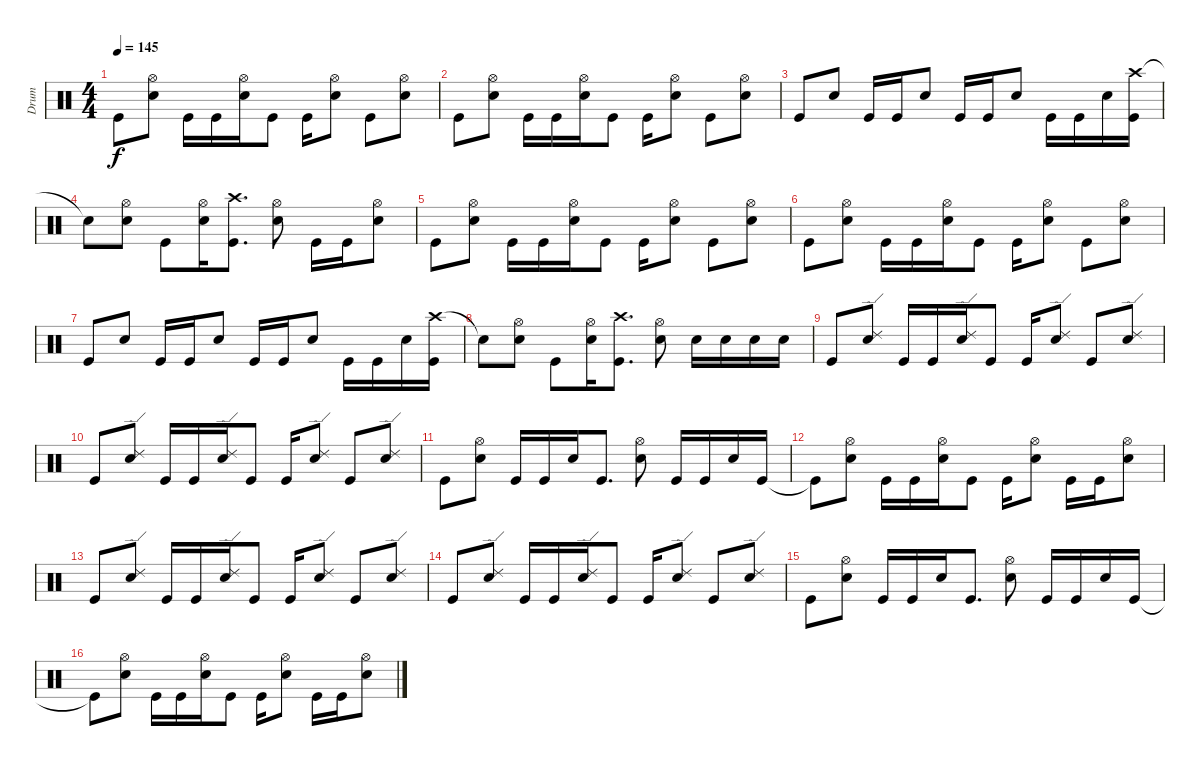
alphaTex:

\track ("Drum" "Drum") {instrument percussion}
\staff {score}
\articulation defaults
\ts (4 4)
\tempo 145
\clef neutral
\ks c "Kick (hit)".8{dy f}
("Hi-Hat (open)" "Snare (hit) 2").8 "Kick (hit)".16 "Kick (hit)".16 ("Hi-Hat (open)" "Snare (hit) 2").16 "Kick (hit)".8 "Kick (hit)".16 ("Hi-Hat (open)" "Snare (hit) 2").8 "Kick (hit)".8 ("Hi-Hat (open)" "Snare (hit) 2").8 |
"Kick (hit)".8 ("Hi-Hat (open)" "Snare (hit) 2").8 "Kick (hit)".16 "Kick (hit)".16 ("Hi-Hat (open)" "Snare (hit) 2").16 "Kick (hit)".8 "Kick (hit)".16 ("Hi-Hat (open)" "Snare (hit) 2").8 "Kick (hit)".8 ("Hi-Hat (open)" "Snare (hit) 2").8 |
"Kick (hit)".8 "Snare (hit) 2".8 "Kick (hit)".16 "Kick (hit)".16 "Snare (hit) 2".8 "Kick (hit)".16 "Kick (hit)".16 "Snare (hit) 2".8 "Kick (hit)".16 "Kick (hit)".16 "Snare (hit) 2".16 ("Crash high (hit)" "Kick (hit)").16 |
"Snare (hit)"{t}.8 ("Hi-Hat (open)" "Snare (hit) 2").8 "Kick (hit)".8 ("Hi-Hat (open)" "Snare (hit) 2").16 ("Crash high (hit)" "Kick (hit)").8{d} ("Hi-Hat (open)" "Snare (hit) 2").8 "Kick (hit)".16 "Kick (hit)".16 ("Hi-Hat (open)" "Snare (hit) 2").8 |
"Kick (hit)".8 ("Hi-Hat (open)" "Snare (hit) 2").8 "Kick (hit)".16 "Kick (hit)".16 ("Hi-Hat (open)" "Snare (hit) 2").16 "Kick (hit)".8 "Kick (hit)".16 ("Hi-Hat (open)" "Snare (hit) 2").8 "Kick (hit)".8 ("Hi-Hat (open)" "Snare (hit) 2").8 |
"Kick (hit)".8 ("Hi-Hat (open)" "Snare (hit) 2").8 "Kick (hit)".16 "Kick (hit)".16 ("Hi-Hat (open)" "Snare (hit) 2").16 "Kick (hit)".8 "Kick (hit)".16 ("Hi-Hat (open)" "Snare (hit) 2").8 "Kick (hit)".8 ("Hi-Hat (open)" "Snare (hit) 2").8 |
"Kick (hit)".8 "Snare (hit) 2".8 "Kick (hit)".16 "Kick (hit)".16 "Snare (hit) 2".8 "Kick (hit)".16 "Kick (hit)".16 "Snare (hit) 2".8 "Kick (hit)".16 "Kick (hit)".16 "Snare (hit) 2".16 ("Crash high (hit)" "Kick (hit)").16 |
"Snare (hit)"{t}.8 ("Hi-Hat (open)" "Snare (hit) 2").8 "Kick (hit)".8 ("Hi-Hat (open)" "Snare (hit) 2").16 ("Crash high (hit)" "Kick (hit)").8{d} ("Hi-Hat (open)" "Snare (hit) 2").8 "Snare (hit) 2".16 "Snare (hit) 2".16 "Snare (hit) 2".16 "Snare (hit) 2".16 |
"Kick (hit)".8 ("Ride (edge) 2" "Snare (hit) 2").8 "Kick (hit)".16 "Kick (hit)".16 ("Ride (edge) 2" "Snare (hit) 2").16 "Kick (hit)".8 "Kick (hit)".16 ("Ride (edge) 2" "Snare (hit) 2").8 "Kick (hit)".8 ("Ride (edge) 2" "Snare (hit) 2").8 |
"Kick (hit)".8 ("Ride (edge) 2" "Snare (hit) 2").8 "Kick (hit)".16 "Kick (hit)".16 ("Ride (edge) 2" "Snare (hit) 2").16 "Kick (hit)".8 "Kick (hit)".16 ("Ride (edge) 2" "Snare (hit) 2").8 "Kick (hit)".8 ("Ride (edge) 2" "Snare (hit) 2").8 |
"Kick (hit)".8 ("Hi-Hat (open)" "Snare (hit) 2").8 "Kick (hit)".16 "Kick (hit)".16 "Snare (hit) 2".16 "Kick (hit)".8{d} ("Hi-Hat (open)" "Snare (hit) 2").8 "Kick (hit)".16 "Kick (hit)".16 "Snare (hit) 2".16 "Kick (hit)".16 |
"Kick (hit)"{t}.8 ("Hi-Hat (open)" "Snare (hit) 2").8 "Kick (hit)".16 "Kick (hit)".16 ("Hi-Hat (open)" "Snare (hit) 2").16 "Kick (hit)".8 "Kick (hit)".16 ("Hi-Hat (open)" "Snare (hit) 2").8 "Kick (hit)".16 "Kick (hit)".16 ("Hi-Hat (open)" "Snare (hit) 2").8 |
"Kick (hit)".8 ("Ride (edge) 2" "Snare (hit) 2").8 "Kick (hit)".16 "Kick (hit)".16 ("Ride (edge) 2" "Snare (hit) 2").16 "Kick (hit)".8 "Kick (hit)".16 ("Ride (edge) 2" "Snare (hit) 2").8 "Kick (hit)".8 ("Ride (edge) 2" "Snare (hit) 2").8 |
"Kick (hit)".8 ("Ride (edge) 2" "Snare (hit) 2").8 "Kick (hit)".16 "Kick (hit)".16 ("Ride (edge) 2" "Snare (hit) 2").16 "Kick (hit)".8 "Kick (hit)".16 ("Ride (edge) 2" "Snare (hit) 2").8 "Kick (hit)".8 ("Ride (edge) 2" "Snare (hit) 2").8 |
"Kick (hit)".8 ("Hi-Hat (open)" "Snare (hit) 2").8 "Kick (hit)".16 "Kick (hit)".16 "Snare (hit) 2".16 "Kick (hit)".8{d} ("Hi-Hat (open)" "Snare (hit) 2").8 "Kick (hit)".16 "Kick (hit)".16 "Snare (hit) 2".16 "Kick (hit)".16 |
"Kick (hit)"{t}.8 ("Hi-Hat (open)" "Snare (hit) 2").8 "Kick (hit)".16 "Kick (hit)".16 ("Hi-Hat (open)" "Snare (hit) 2").16 "Kick (hit)".8 "Kick (hit)".16 ("Hi-Hat (open)" "Snare (hit) 2").8 "Kick (hit)".16 "Kick (hit)".16 ("Hi-Hat (open)" "Snare (hit) 2").8
